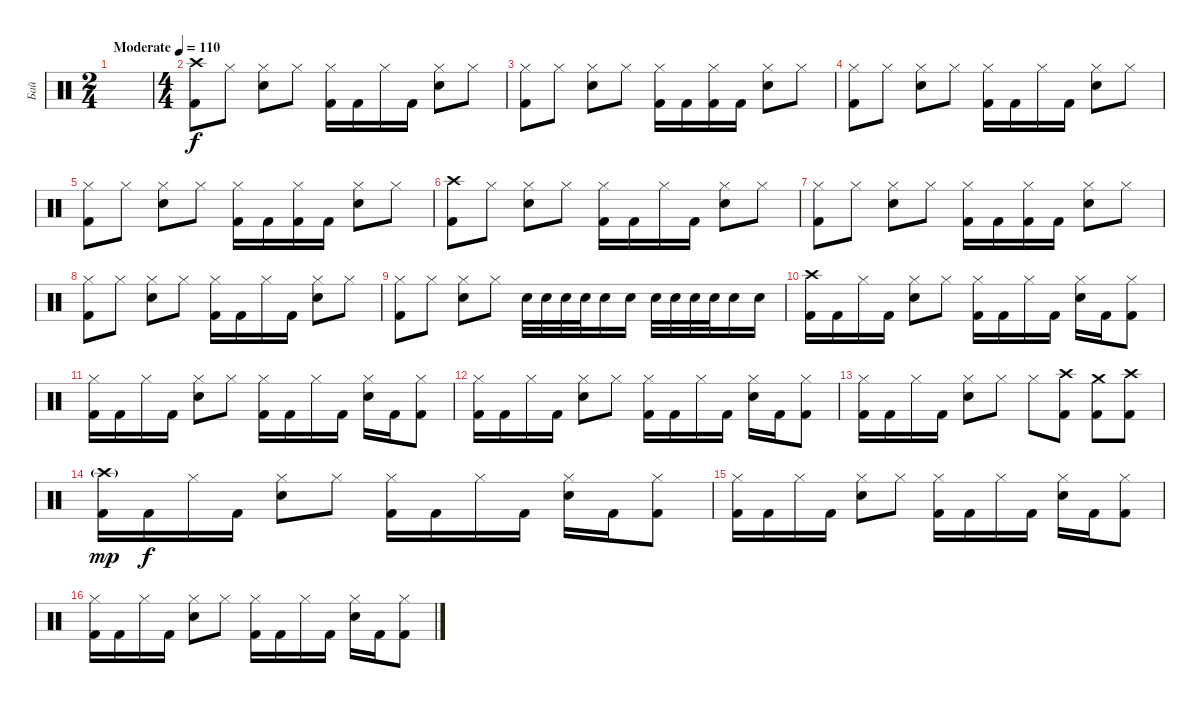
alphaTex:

\track ("Бай" "Бай") {instrument percussion}
\staff {score}
\articulation defaults
\ts (2 4)
\tempo (110 "Moderate")
\clef neutral
\ks c
|
\ts (4 4)
("Crash high (hit)" "Kick (hit) 2").8 "Hi-Hat (closed)".8 ("Electric Snare (hit)" "Hi-Hat (closed)").8 "Hi-Hat (closed)".8 ("Kick (hit) 2" "Hi-Hat (closed)").16 "Kick (hit) 2".16 "Hi-Hat (closed)".16 "Kick (hit) 2".16 ("Electric Snare (hit)" "Hi-Hat (closed)").8 "Hi-Hat (closed)".8 |
("Kick (hit) 2" "Hi-Hat (closed)").8 "Hi-Hat (closed)".8 ("Electric Snare (hit)" "Hi-Hat (closed)").8 "Hi-Hat (closed)".8 ("Kick (hit) 2" "Hi-Hat (closed)").16 "Kick (hit) 2".16 ("Kick (hit) 2" "Hi-Hat (closed)").16 "Kick (hit) 2".16 ("Electric Snare (hit)" "Hi-Hat (closed)").8 "Hi-Hat (closed)".8 |
("Kick (hit) 2" "Hi-Hat (closed)").8 "Hi-Hat (closed)".8 ("Electric Snare (hit)" "Hi-Hat (closed)").8 "Hi-Hat (closed)".8 ("Kick (hit) 2" "Hi-Hat (closed)").16 "Kick (hit) 2".16 "Hi-Hat (closed)".16 "Kick (hit) 2".16 ("Electric Snare (hit)" "Hi-Hat (closed)").8 "Hi-Hat (closed)".8 |
("Kick (hit) 2" "Hi-Hat (closed)").8 "Hi-Hat (closed)".8 ("Electric Snare (hit)" "Hi-Hat (closed)").8 "Hi-Hat (closed)".8 ("Kick (hit) 2" "Hi-Hat (closed)").16 "Kick (hit) 2".16 ("Kick (hit) 2" "Hi-Hat (closed)").16 "Kick (hit) 2".16 ("Electric Snare (hit)" "Hi-Hat (closed)").8 "Hi-Hat (closed)".8 |
("Crash high (hit)" "Kick (hit) 2").8 "Hi-Hat (closed)".8 ("Electric Snare (hit)" "Hi-Hat (closed)").8 "Hi-Hat (closed)".8 ("Kick (hit) 2" "Hi-Hat (closed)").16 "Kick (hit) 2".16 "Hi-Hat (closed)".16 "Kick (hit) 2".16 ("Electric Snare (hit)" "Hi-Hat (closed)").8 "Hi-Hat (closed)".8 |
("Kick (hit) 2" "Hi-Hat (closed)").8 "Hi-Hat (closed)".8 ("Electric Snare (hit)" "Hi-Hat (closed)").8 "Hi-Hat (closed)".8 ("Kick (hit) 2" "Hi-Hat (closed)").16 "Kick (hit) 2".16 ("Kick (hit) 2" "Hi-Hat (closed)").16 "Kick (hit) 2".16 ("Electric Snare (hit)" "Hi-Hat (closed)").8 "Hi-Hat (closed)".8 |
("Kick (hit) 2" "Hi-Hat (closed)").8 "Hi-Hat (closed)".8 ("Electric Snare (hit)" "Hi-Hat (closed)").8 "Hi-Hat (closed)".8 ("Kick (hit) 2" "Hi-Hat (closed)").16 "Kick (hit) 2".16 "Hi-Hat (closed)".16 "Kick (hit) 2".16 ("Electric Snare (hit)" "Hi-Hat (closed)").8 "Hi-Hat (closed)".8 |
("Kick (hit) 2" "Hi-Hat (closed)").8 "Hi-Hat (closed)".8 ("Electric Snare (hit)" "Hi-Hat (closed)").8 "Hi-Hat (closed)".8 "Electric Snare (hit)".32 "Electric Snare (hit)".32 "Electric Snare (hit)".32 "Electric Snare (hit)".32 "Electric Snare (hit)".16 "Electric Snare (hit)".16 "Electric Snare (hit)".32 "Electric Snare (hit)".32 "Electric Snare (hit)".32 "Electric Snare (hit)".32 "Electric Snare (hit)".16 "Electric Snare (hit)".16 |
("Crash high (hit)" "Kick (hit) 2").16 "Kick (hit) 2".16 "Hi-Hat (closed)".16 "Kick (hit) 2".16 ("Electric Snare (hit)" "Hi-Hat (closed)").8 "Hi-Hat (closed)".8 ("Kick (hit) 2" "Hi-Hat (closed)").16 "Kick (hit) 2".16 "Hi-Hat (closed)".16 "Kick (hit) 2".16 ("Electric Snare (hit)" "Hi-Hat (closed)").16 "Kick (hit) 2".16 ("Kick (hit) 2" "Hi-Hat (closed)").8 |
("Kick (hit) 2" "Hi-Hat (closed)").16 "Kick (hit) 2".16 "Hi-Hat (closed)".16 "Kick (hit) 2".16 ("Electric Snare (hit)" "Hi-Hat (closed)").8 "Hi-Hat (closed)".8 ("Kick (hit) 2" "Hi-Hat (closed)").16 "Kick (hit) 2".16 "Hi-Hat (closed)".16 "Kick (hit) 2".16 ("Electric Snare (hit)" "Hi-Hat (closed)").16 "Kick (hit) 2".16 ("Kick (hit) 2" "Hi-Hat (closed)").8 |
("Kick (hit) 2" "Hi-Hat (closed)").16 "Kick (hit) 2".16 "Hi-Hat (closed)".16 "Kick (hit) 2".16 ("Electric Snare (hit)" "Hi-Hat (closed)").8 "Hi-Hat (closed)".8 ("Kick (hit) 2" "Hi-Hat (closed)").16 "Kick (hit) 2".16 "Hi-Hat (closed)".16 "Kick (hit) 2".16 ("Electric Snare (hit)" "Hi-Hat (closed)").16 "Kick (hit) 2".16 ("Kick (hit) 2" "Hi-Hat (closed)").8 |
("Kick (hit) 2" "Hi-Hat (closed)").16 "Kick (hit) 2".16 "Hi-Hat (closed)".16 "Kick (hit) 2".16 ("Electric Snare (hit)" "Hi-Hat (closed)").8 "Hi-Hat (closed)".8 "Hi-Hat (closed)".8 ("Crash high (hit)" "Kick (hit) 2").8 ("Crash medium (hit)" "Kick (hit) 2").8 ("Crash high (hit)" "Kick (hit) 2").8 |
("Crash high (hit)"{g} "Kick (hit) 2").16{dy mp} "Kick (hit) 2".16{dy f} "Hi-Hat (closed)".16 "Kick (hit) 2".16 ("Electric Snare (hit)" "Hi-Hat (closed)").8 "Hi-Hat (closed)".8 ("Kick (hit) 2" "Hi-Hat (closed)").16 "Kick (hit) 2".16 "Hi-Hat (closed)".16 "Kick (hit) 2".16 ("Electric Snare (hit)" "Hi-Hat (closed)").16 "Kick (hit) 2".16 ("Kick (hit) 2" "Hi-Hat (closed)").8 |
("Kick (hit) 2" "Hi-Hat (closed)").16 "Kick (hit) 2".16 "Hi-Hat (closed)".16 "Kick (hit) 2".16 ("Electric Snare (hit)" "Hi-Hat (closed)").8 "Hi-Hat (closed)".8 ("Kick (hit) 2" "Hi-Hat (closed)").16 "Kick (hit) 2".16 "Hi-Hat (closed)".16 "Kick (hit) 2".16 ("Electric Snare (hit)" "Hi-Hat (closed)").16 "Kick (hit) 2".16 ("Kick (hit) 2" "Hi-Hat (closed)").8 |
("Kick (hit) 2" "Hi-Hat (closed)").16 "Kick (hit) 2".16 "Hi-Hat (closed)".16 "Kick (hit) 2".16 ("Electric Snare (hit)" "Hi-Hat (closed)").8 "Hi-Hat (closed)".8 ("Kick (hit) 2" "Hi-Hat (closed)").16 "Kick (hit) 2".16 "Hi-Hat (closed)".16 "Kick (hit) 2".16 ("Electric Snare (hit)" "Hi-Hat (closed)").16 "Kick (hit) 2".16 ("Kick (hit) 2" "Hi-Hat (closed)").8
